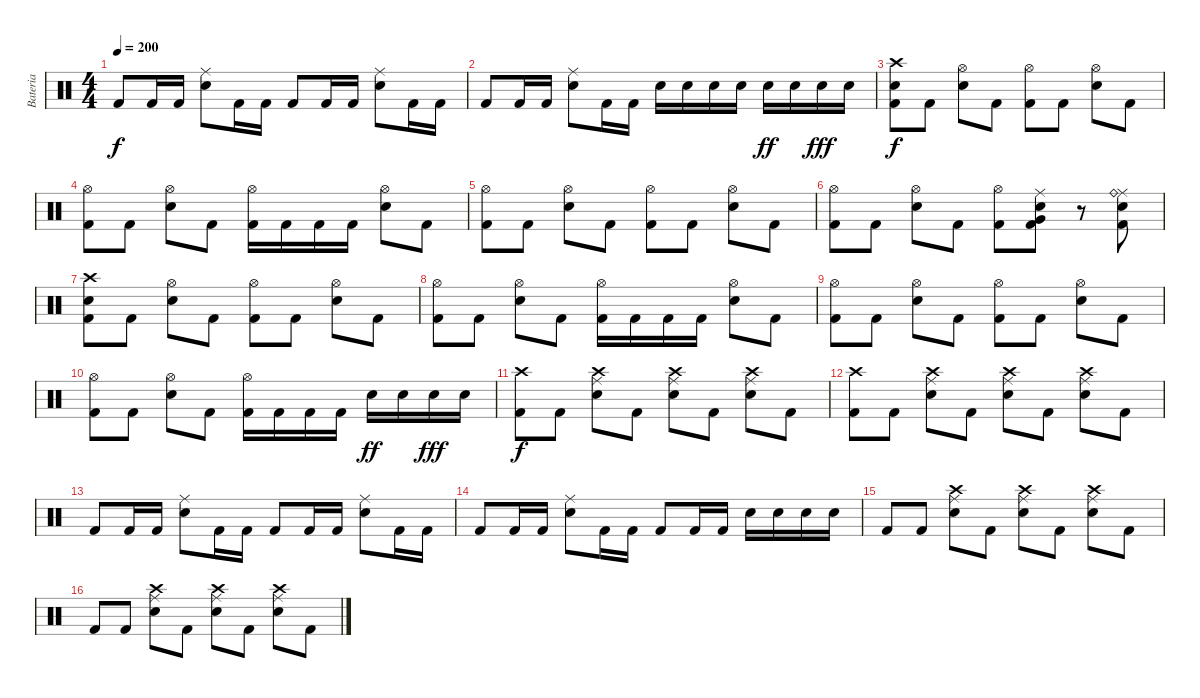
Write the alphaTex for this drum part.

\track ("Bateria" "Bateria") {instrument percussion}
\staff {score}
\articulation defaults
\ts (4 4)
\tempo 200
\clef neutral
\ks c "Kick (hit) 2".8{dy f} "Kick (hit) 2".16 "Kick (hit) 2".16
("Electric Snare (hit)" "Ride (middle)").8 "Kick (hit) 2".16 "Kick (hit) 2".16 "Kick (hit) 2".8 "Kick (hit) 2".16 "Kick (hit) 2".16 ("Electric Snare (hit)" "Ride (middle)").8 "Kick (hit) 2".16 "Kick (hit) 2".16 |
"Kick (hit) 2".8 "Kick (hit) 2".16 "Kick (hit) 2".16 ("Electric Snare (hit)" "Ride (middle)").8 "Kick (hit) 2".16 "Kick (hit) 2".16 "Electric Snare (hit)".16 "Electric Snare (hit)".16 "Electric Snare (hit)".16 "Electric Snare (hit)".16 "Electric Snare (hit)".16{dy ff} "Electric Snare (hit)".16 "Electric Snare (hit)".16{dy fff} "Electric Snare (hit)".16 |
("Kick (hit) 2" "Electric Snare (hit)" "Crash high (hit)").8{dy f} "Kick (hit) 2".8 ("Electric Snare (hit)" "Hi-Hat (open)").8 "Kick (hit) 2".8 ("Kick (hit) 2" "Hi-Hat (open)").8 "Kick (hit) 2".8 ("Electric Snare (hit)" "Hi-Hat (open)").8 "Kick (hit) 2".8 |
("Kick (hit) 2" "Hi-Hat (open)").8 "Kick (hit) 2".8 ("Electric Snare (hit)" "Hi-Hat (open)").8 "Kick (hit) 2".8 ("Kick (hit) 2" "Hi-Hat (open)").16 "Kick (hit) 2".16 "Kick (hit) 2".16 "Kick (hit) 2".16 ("Electric Snare (hit)" "Hi-Hat (open)").8 "Kick (hit) 2".8 |
("Kick (hit) 2" "Hi-Hat (open)").8 "Kick (hit) 2".8 ("Electric Snare (hit)" "Hi-Hat (open)").8 "Kick (hit) 2".8 ("Kick (hit) 2" "Hi-Hat (open)").8 "Kick (hit) 2".8 ("Electric Snare (hit)" "Hi-Hat (open)").8 "Kick (hit) 2".8 |
("Kick (hit) 2" "Hi-Hat (open)").8 "Kick (hit) 2".8 ("Electric Snare (hit)" "Hi-Hat (open)").8 "Kick (hit) 2".8 ("Kick (hit) 2" "Hi-Hat (open)").8 ("Kick (hit) 2" "Electric Snare (hit)" "Ride (middle)" "Very Low Tom (hit)").8 r.8 ("Kick (hit) 2" "Electric Snare (hit)" "Ride (middle)" "Ride (bell)").8 |
("Kick (hit) 2" "Electric Snare (hit)" "Crash high (hit)").8 "Kick (hit) 2".8 ("Electric Snare (hit)" "Hi-Hat (open)").8 "Kick (hit) 2".8 ("Kick (hit) 2" "Hi-Hat (open)").8 "Kick (hit) 2".8 ("Electric Snare (hit)" "Hi-Hat (open)").8 "Kick (hit) 2".8 |
("Kick (hit) 2" "Hi-Hat (open)").8 "Kick (hit) 2".8 ("Electric Snare (hit)" "Hi-Hat (open)").8 "Kick (hit) 2".8 ("Kick (hit) 2" "Hi-Hat (open)").16 "Kick (hit) 2".16 "Kick (hit) 2".16 "Kick (hit) 2".16 ("Electric Snare (hit)" "Hi-Hat (open)").8 "Kick (hit) 2".8 |
("Kick (hit) 2" "Hi-Hat (open)").8 "Kick (hit) 2".8 ("Electric Snare (hit)" "Hi-Hat (open)").8 "Kick (hit) 2".8 ("Kick (hit) 2" "Hi-Hat (open)").8 "Kick (hit) 2".8 ("Electric Snare (hit)" "Hi-Hat (open)").8 "Kick (hit) 2".8 |
("Kick (hit) 2" "Hi-Hat (open)").8 "Kick (hit) 2".8 ("Electric Snare (hit)" "Hi-Hat (open)").8 "Kick (hit) 2".8 ("Kick (hit) 2" "Hi-Hat (open)").16 "Kick (hit) 2".16 "Kick (hit) 2".16 "Kick (hit) 2".16 "Electric Snare (hit)".16{dy ff} "Electric Snare (hit)".16 "Electric Snare (hit)".16{dy fff} "Electric Snare (hit)".16 |
("Kick (hit) 2" "Crash high (hit)").8{dy f} "Kick (hit) 2".8 ("Crash high (hit)" "Electric Snare (hit)" "Ride (middle)").8 "Kick (hit) 2".8 ("Crash high (hit)" "Electric Snare (hit)" "Ride (middle)").8 "Kick (hit) 2".8 ("Crash high (hit)" "Electric Snare (hit)" "Ride (middle)").8 "Kick (hit) 2".8 |
("Kick (hit) 2" "Crash high (hit)").8 "Kick (hit) 2".8 ("Crash high (hit)" "Electric Snare (hit)" "Ride (middle)").8 "Kick (hit) 2".8 ("Crash high (hit)" "Electric Snare (hit)" "Ride (middle)").8 "Kick (hit) 2".8 ("Crash high (hit)" "Electric Snare (hit)" "Ride (middle)").8 "Kick (hit) 2".8 |
"Kick (hit) 2".8 "Kick (hit) 2".16 "Kick (hit) 2".16 ("Electric Snare (hit)" "Ride (middle)").8 "Kick (hit) 2".16 "Kick (hit) 2".16 "Kick (hit) 2".8 "Kick (hit) 2".16 "Kick (hit) 2".16 ("Electric Snare (hit)" "Ride (middle)").8 "Kick (hit) 2".16 "Kick (hit) 2".16 |
"Kick (hit) 2".8 "Kick (hit) 2".16 "Kick (hit) 2".16 ("Electric Snare (hit)" "Ride (middle)").8 "Kick (hit) 2".16 "Kick (hit) 2".16 "Kick (hit) 2".8 "Kick (hit) 2".16 "Kick (hit) 2".16 "Electric Snare (hit)".16 "Electric Snare (hit)".16 "Electric Snare (hit)".16 "Electric Snare (hit)".16 |
"Kick (hit) 2".8 "Kick (hit) 2".8 ("Crash high (hit)" "Electric Snare (hit)" "Ride (middle)").8 "Kick (hit) 2".8 ("Crash high (hit)" "Electric Snare (hit)" "Ride (middle)").8 "Kick (hit) 2".8 ("Crash high (hit)" "Electric Snare (hit)" "Ride (middle)").8 "Kick (hit) 2".8 |
"Kick (hit) 2".8 "Kick (hit) 2".8 ("Crash high (hit)" "Electric Snare (hit)" "Ride (middle)").8 "Kick (hit) 2".8 ("Crash high (hit)" "Electric Snare (hit)" "Ride (middle)").8 "Kick (hit) 2".8 ("Crash high (hit)" "Electric Snare (hit)" "Ride (middle)").8 "Kick (hit) 2".8
